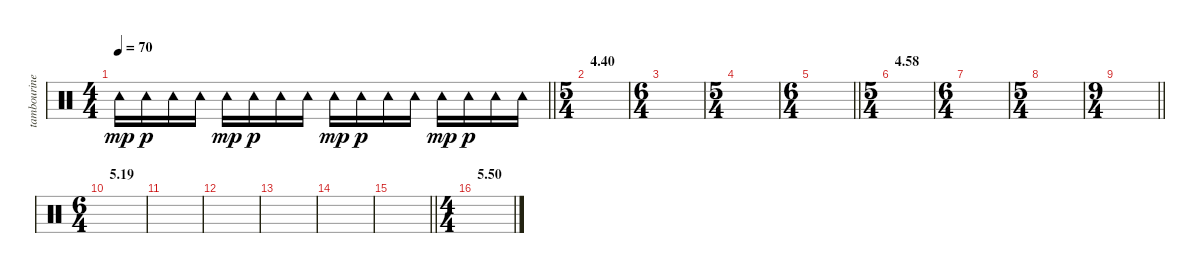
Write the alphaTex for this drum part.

\track ("tambourine" "tambourine") {instrument percussion}
\staff {score}
\articulation defaults
\ts (4 4)
\tempo 70
\clef neutral
\barLineRight lightlight
\ks c "Tambourine (hit)".16{dy mp} "Tambourine (hit)".16{dy p} "Tambourine (hit)".16 "Tambourine (hit)".16 "Tambourine (hit)".16{dy mp} "Tambourine (hit)".16{dy p} "Tambourine (hit)".16 "Tambourine (hit)".16 "Tambourine (hit)".16{dy mp} "Tambourine (hit)".16{dy p} "Tambourine (hit)".16 "Tambourine (hit)".16 "Tambourine (hit)".16{dy mp} "Tambourine (hit)".16{dy p} "Tambourine (hit)".16 "Tambourine (hit)".16
|
\ts (5 4)
\section ("" "4.40")
|
\ts (6 4)
|
\ts (5 4)
|
\ts (6 4)
\barLineRight lightlight
|
\ts (5 4)
\section ("" "4.58")
|
\ts (6 4)
|
\ts (5 4)
|
\ts (9 4)
\barLineRight lightlight
|
\ts (6 4)
\section ("" "5.19")
|
|
|
|
|
\barLineRight lightlight
|
\ts (4 4)
\section ("" "5.50")
